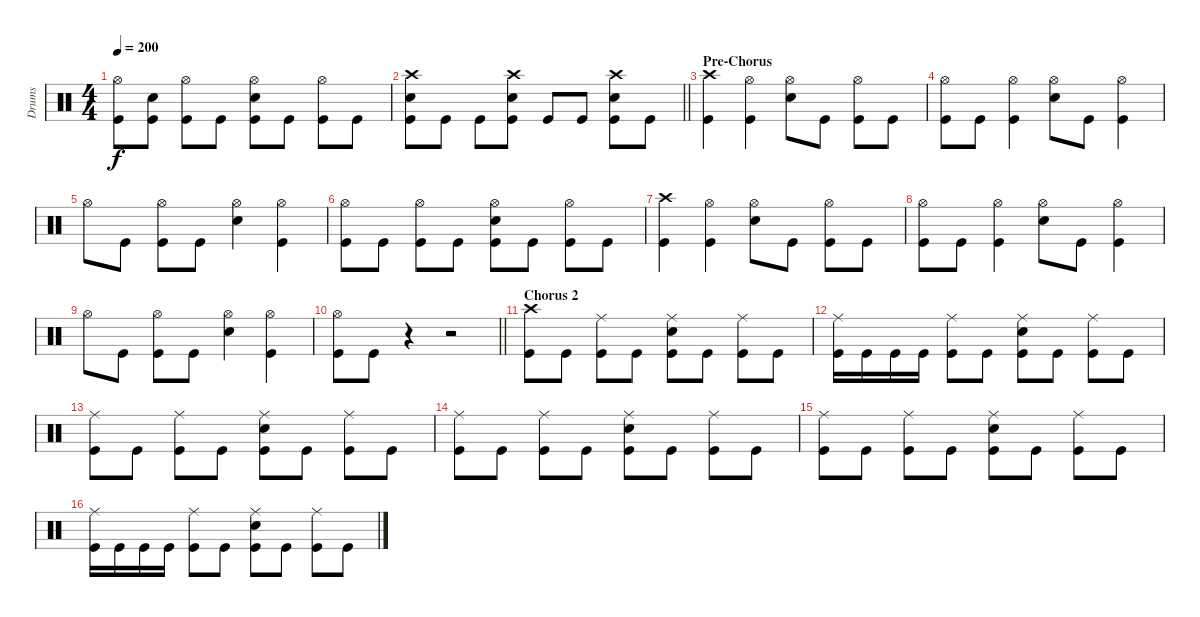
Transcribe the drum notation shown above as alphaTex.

\track ("Drums" "Drums") {instrument percussion}
\staff {score}
\articulation defaults
\ts (4 4)
\tempo 200
\clef neutral
\ks c
("Hi-Hat (open)" "Kick (hit)").8{dy f} ("Snare (hit) 2" "Kick (hit)").8 ("Hi-Hat (open)" "Kick (hit)").8 "Kick (hit)".8 ("Snare (hit) 2" "Hi-Hat (open)" "Kick (hit)").8 "Kick (hit)".8 ("Hi-Hat (open)" "Kick (hit)").8 "Kick (hit)".8 |
\barLineRight lightlight
("Crash high (hit)" "Snare (hit) 2" "Kick (hit)").8 "Kick (hit)".8 "Kick (hit)".8 ("Crash high (hit)" "Snare (hit) 2" "Kick (hit)").8 "Kick (hit)".8 "Kick (hit)".8 ("Crash high (hit)" "Snare (hit) 2" "Kick (hit)").8 "Kick (hit)".8 |
\section ("" "Pre-Chorus")
("Crash high (hit)" "Kick (hit)").4 ("Hi-Hat (open)" "Kick (hit)").4 ("Snare (hit) 2" "Hi-Hat (open)").8 "Kick (hit)".8 ("Hi-Hat (open)" "Kick (hit)").8 "Kick (hit)".8 |
("Hi-Hat (open)" "Kick (hit)").8 "Kick (hit)".8 ("Hi-Hat (open)" "Kick (hit)").4 ("Snare (hit) 2" "Hi-Hat (open)").8 "Kick (hit)".8 ("Hi-Hat (open)" "Kick (hit)").4 |
"Hi-Hat (open)".8 "Kick (hit)".8 ("Hi-Hat (open)" "Kick (hit)").8 "Kick (hit)".8 ("Snare (hit) 2" "Hi-Hat (open)").4 ("Hi-Hat (open)" "Kick (hit)").4 |
("Hi-Hat (open)" "Kick (hit)").8 "Kick (hit)".8 ("Hi-Hat (open)" "Kick (hit)").8 "Kick (hit)".8 ("Snare (hit) 2" "Hi-Hat (open)" "Kick (hit)").8 "Kick (hit)".8 ("Hi-Hat (open)" "Kick (hit)").8 "Kick (hit)".8 |
("Crash high (hit)" "Kick (hit)").4 ("Hi-Hat (open)" "Kick (hit)").4 ("Snare (hit) 2" "Hi-Hat (open)").8 "Kick (hit)".8 ("Hi-Hat (open)" "Kick (hit)").8 "Kick (hit)".8 |
("Hi-Hat (open)" "Kick (hit)").8 "Kick (hit)".8 ("Hi-Hat (open)" "Kick (hit)").4 ("Snare (hit) 2" "Hi-Hat (open)").8 "Kick (hit)".8 ("Hi-Hat (open)" "Kick (hit)").4 |
"Hi-Hat (open)".8 "Kick (hit)".8 ("Hi-Hat (open)" "Kick (hit)").8 "Kick (hit)".8 ("Snare (hit) 2" "Hi-Hat (open)").4 ("Hi-Hat (open)" "Kick (hit)").4 |
\barLineRight lightlight
("Hi-Hat (open)" "Kick (hit)").8 "Kick (hit)".8 r.4 r.2 |
\section ("" "Chorus 2")
("Crash high (hit)" "Kick (hit)").8 "Kick (hit)".8 ("Ride (middle)" "Kick (hit)").8 "Kick (hit)".8 ("Ride (middle)" "Snare (hit) 2" "Kick (hit)").8 "Kick (hit)".8 ("Ride (middle)" "Kick (hit)").8 "Kick (hit)".8 |
("Ride (middle)" "Kick (hit)").16 "Kick (hit)".16 "Kick (hit)".16 "Kick (hit)".16 ("Ride (middle)" "Kick (hit)").8 "Kick (hit)".8 ("Snare (hit) 2" "Ride (middle)" "Kick (hit)").8 "Kick (hit)".8 ("Ride (middle)" "Kick (hit)").8 "Kick (hit)".8 |
("Ride (middle)" "Kick (hit)").8 "Kick (hit)".8 ("Ride (middle)" "Kick (hit)").8 "Kick (hit)".8 ("Ride (middle)" "Snare (hit) 2" "Kick (hit)").8 "Kick (hit)".8 ("Ride (middle)" "Kick (hit)").8 "Kick (hit)".8 |
("Ride (middle)" "Kick (hit)").8 "Kick (hit)".8 ("Ride (middle)" "Kick (hit)").8 "Kick (hit)".8 ("Ride (middle)" "Snare (hit) 2" "Kick (hit)").8 "Kick (hit)".8 ("Ride (middle)" "Kick (hit)").8 "Kick (hit)".8 |
("Ride (middle)" "Kick (hit)").8 "Kick (hit)".8 ("Ride (middle)" "Kick (hit)").8 "Kick (hit)".8 ("Ride (middle)" "Snare (hit) 2" "Kick (hit)").8 "Kick (hit)".8 ("Ride (middle)" "Kick (hit)").8 "Kick (hit)".8 |
("Ride (middle)" "Kick (hit)").16 "Kick (hit)".16 "Kick (hit)".16 "Kick (hit)".16 ("Ride (middle)" "Kick (hit)").8 "Kick (hit)".8 ("Snare (hit) 2" "Ride (middle)" "Kick (hit)").8 "Kick (hit)".8 ("Ride (middle)" "Kick (hit)").8 "Kick (hit)".8
